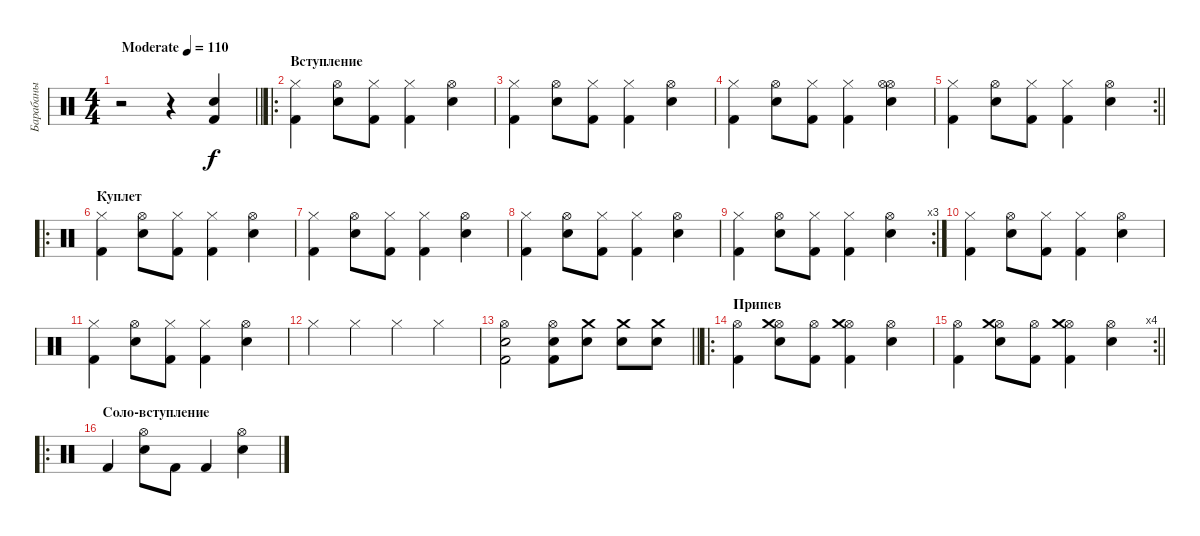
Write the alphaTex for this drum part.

\track ("Барабаны" "Барабаны") {instrument percussion}
\staff {score}
\articulation defaults
\ts (4 4)
\tempo (110 "Moderate")
\clef neutral
\barLineRight lightlight
\ks c
r.2{dy f} r.4 ("Snare (hit) 2" "Kick (hit) 2").4 |
\ro
\section ("" "Вступление")
("Kick (hit) 2" "Hi-Hat (closed)").4 ("Snare (hit) 2" "Hi-Hat (open)").8 ("Kick (hit) 2" "Hi-Hat (closed)").8 ("Kick (hit) 2" "Hi-Hat (closed)").4 ("Snare (hit) 2" "Hi-Hat (open)").4 |
("Kick (hit) 2" "Hi-Hat (closed)").4 ("Snare (hit) 2" "Hi-Hat (open)").8 ("Kick (hit) 2" "Hi-Hat (closed)").8 ("Kick (hit) 2" "Hi-Hat (closed)").4 ("Snare (hit) 2" "Hi-Hat (open)").4 |
("Kick (hit) 2" "Hi-Hat (closed)").4 ("Snare (hit) 2" "Hi-Hat (open)").8 ("Kick (hit) 2" "Hi-Hat (closed)").8 ("Kick (hit) 2" "Hi-Hat (closed)").4 ("Snare (hit) 2" "Hi-Hat (open)" "Hi-Hat (open)").4 |
\rc 2
\barLineRight lightlight
("Kick (hit) 2" "Hi-Hat (closed)").4 ("Snare (hit) 2" "Hi-Hat (open)").8 ("Kick (hit) 2" "Hi-Hat (closed)").8 ("Kick (hit) 2" "Hi-Hat (closed)").4 ("Snare (hit) 2" "Hi-Hat (open)").4 |
\ro
\section ("" "Куплет")
("Kick (hit) 2" "Hi-Hat (closed)").4 ("Snare (hit) 2" "Hi-Hat (open)").8 ("Kick (hit) 2" "Hi-Hat (closed)").8 ("Kick (hit) 2" "Hi-Hat (closed)").4 ("Snare (hit) 2" "Hi-Hat (open)").4 |
("Kick (hit) 2" "Hi-Hat (closed)").4 ("Snare (hit) 2" "Hi-Hat (open)").8 ("Kick (hit) 2" "Hi-Hat (closed)").8 ("Kick (hit) 2" "Hi-Hat (closed)").4 ("Snare (hit) 2" "Hi-Hat (open)").4 |
("Kick (hit) 2" "Hi-Hat (closed)").4 ("Snare (hit) 2" "Hi-Hat (open)").8 ("Kick (hit) 2" "Hi-Hat (closed)").8 ("Kick (hit) 2" "Hi-Hat (closed)").4 ("Snare (hit) 2" "Hi-Hat (open)").4 |
\rc 3
("Kick (hit) 2" "Hi-Hat (closed)").4 ("Snare (hit) 2" "Hi-Hat (open)").8 ("Kick (hit) 2" "Hi-Hat (closed)").8 ("Kick (hit) 2" "Hi-Hat (closed)").4 ("Snare (hit) 2" "Hi-Hat (open)").4 |
("Kick (hit) 2" "Hi-Hat (closed)").4 ("Snare (hit) 2" "Hi-Hat (open)").8 ("Kick (hit) 2" "Hi-Hat (closed)").8 ("Kick (hit) 2" "Hi-Hat (closed)").4 ("Snare (hit) 2" "Hi-Hat (open)").4 |
("Kick (hit) 2" "Hi-Hat (closed)").4 ("Snare (hit) 2" "Hi-Hat (open)").8 ("Kick (hit) 2" "Hi-Hat (closed)").8 ("Kick (hit) 2" "Hi-Hat (closed)").4 ("Snare (hit) 2" "Hi-Hat (open)").4 |
"Hi-Hat (closed)".4 "Hi-Hat (closed)".4 "Hi-Hat (closed)".4 "Hi-Hat (closed)".4 |
\barLineRight lightlight
("Kick (hit) 2" "Snare (hit) 2" "Hi-Hat (open)").2 ("Snare (hit) 2" "Kick (hit) 2" "Hi-Hat (open)").8 ("Snare (hit) 2" "Crash medium (hit)").8 ("Snare (hit) 2" "Crash medium (hit)").8 ("Snare (hit) 2" "Crash medium (hit)").8 |
\ro
\section ("" "Припев")
("Kick (hit) 2" "Hi-Hat (open)").4 ("Snare (hit) 2" "Hi-Hat (open)" "Crash medium (hit)").8 ("Kick (hit) 2" "Hi-Hat (open)").8 ("Kick (hit) 2" "Hi-Hat (open)" "Crash medium (hit)").4 ("Snare (hit) 2" "Hi-Hat (open)").4 |
\rc 4
\barLineRight lightlight
("Kick (hit) 2" "Hi-Hat (open)").4 ("Snare (hit) 2" "Hi-Hat (open)" "Crash medium (hit)").8 ("Kick (hit) 2" "Hi-Hat (open)").8 ("Kick (hit) 2" "Hi-Hat (open)" "Crash medium (hit)").4 ("Snare (hit) 2" "Hi-Hat (open)").4 |
\ro
\section ("" "Соло-вступление")
"Kick (hit) 2".4 ("Snare (hit) 2" "Hi-Hat (open)").8 "Kick (hit) 2".8 "Kick (hit) 2".4 ("Snare (hit) 2" "Hi-Hat (open)").4
